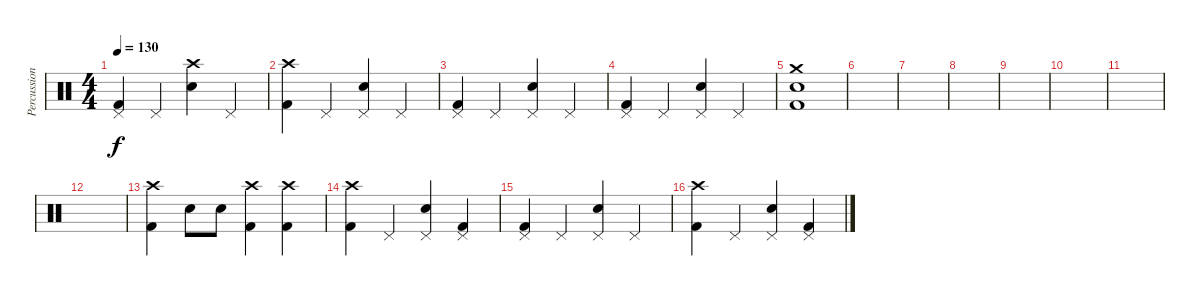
\track ("Percussions" "Percussion") {instrument percussion}
\staff {score}
\articulation defaults
\ts (4 4)
\tempo 130
\clef neutral
\ks c
("Pedal Hi-Hat (hit)" "Kick (hit) 2").4{dy f} "Pedal Hi-Hat (hit)".4 ("Crash high (hit)" "Snare (hit) 2").4 "Pedal Hi-Hat (hit)".4 |
("Crash high (hit)" "Kick (hit) 2").4 "Pedal Hi-Hat (hit)".4 ("Pedal Hi-Hat (hit)" "Snare (hit) 2").4 "Pedal Hi-Hat (hit)".4 |
("Pedal Hi-Hat (hit)" "Kick (hit) 2").4 "Pedal Hi-Hat (hit)".4 ("Pedal Hi-Hat (hit)" "Snare (hit) 2").4 "Pedal Hi-Hat (hit)".4 |
("Pedal Hi-Hat (hit)" "Kick (hit) 2").4 "Pedal Hi-Hat (hit)".4 ("Pedal Hi-Hat (hit)" "Snare (hit) 2").4 "Pedal Hi-Hat (hit)".4 |
("Crash medium (hit)" "Snare (hit) 2" "Kick (hit) 2").1 |
|
|
|
|
|
|
|
("Crash high (hit)" "Kick (hit) 2").4 "Snare (hit) 2".8 "Snare (hit) 2".8 ("Crash high (hit)" "Kick (hit) 2").4 ("Crash high (hit)" "Kick (hit) 2").4 |
("Crash high (hit)" "Kick (hit) 2").4 "Pedal Hi-Hat (hit)".4 ("Pedal Hi-Hat (hit)" "Snare (hit) 2").4 ("Pedal Hi-Hat (hit)" "Kick (hit) 2").4 |
("Pedal Hi-Hat (hit)" "Kick (hit) 2").4 "Pedal Hi-Hat (hit)".4 ("Pedal Hi-Hat (hit)" "Snare (hit) 2").4 "Pedal Hi-Hat (hit)".4 |
("Crash high (hit)" "Kick (hit) 2").4 "Pedal Hi-Hat (hit)".4 ("Pedal Hi-Hat (hit)" "Snare (hit) 2").4 ("Pedal Hi-Hat (hit)" "Kick (hit) 2").4
